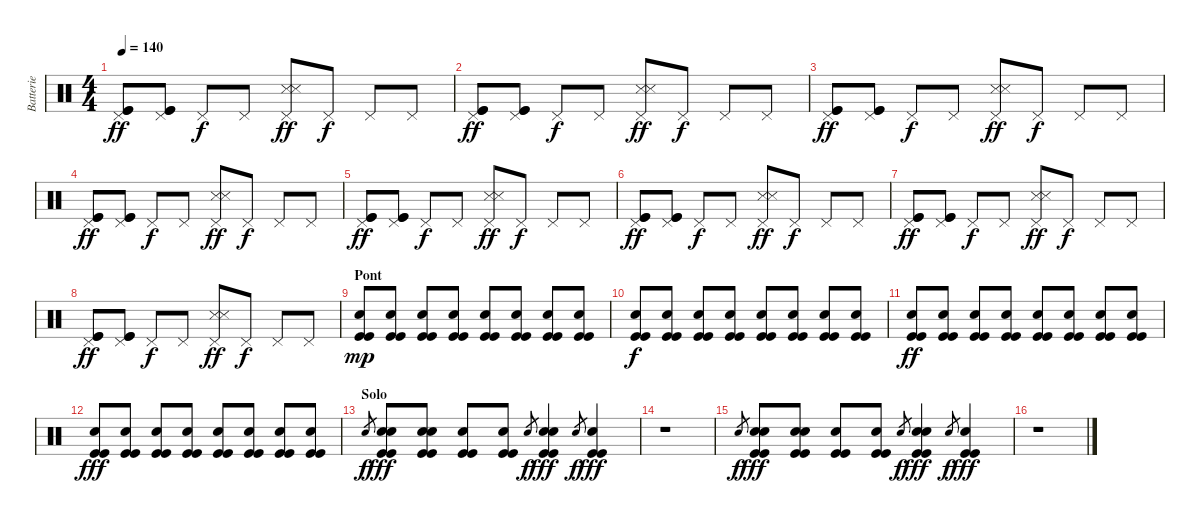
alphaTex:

\track ("Batterie " "Batterie ") {instrument percussion}
\staff {score}
\articulation defaults
\ts (4 4)
\tempo 140
\clef neutral
\ks c
("Kick (hit)" "Kick (hit)" "Pedal Hi-Hat (hit)").8{dy ff} ("Kick (hit)" "Kick (hit)" "Pedal Hi-Hat (hit)").8 "Pedal Hi-Hat (hit)".8{dy f} "Pedal Hi-Hat (hit)".8 ("Snare (side stick) 3" "Snare (side stick) 3" "Pedal Hi-Hat (hit)").8{dy ff} "Pedal Hi-Hat (hit)".8{dy f} "Pedal Hi-Hat (hit)".8 "Pedal Hi-Hat (hit)".8 |
("Kick (hit)" "Kick (hit)" "Pedal Hi-Hat (hit)").8{dy ff} ("Kick (hit)" "Kick (hit)" "Pedal Hi-Hat (hit)").8 "Pedal Hi-Hat (hit)".8{dy f} "Pedal Hi-Hat (hit)".8 ("Snare (side stick) 3" "Snare (side stick) 3" "Pedal Hi-Hat (hit)").8{dy ff} "Pedal Hi-Hat (hit)".8{dy f} "Pedal Hi-Hat (hit)".8 "Pedal Hi-Hat (hit)".8 |
("Kick (hit)" "Kick (hit)" "Pedal Hi-Hat (hit)").8{dy ff} ("Kick (hit)" "Kick (hit)" "Pedal Hi-Hat (hit)").8 "Pedal Hi-Hat (hit)".8{dy f} "Pedal Hi-Hat (hit)".8 ("Snare (side stick) 3" "Snare (side stick) 3" "Pedal Hi-Hat (hit)").8{dy ff} "Pedal Hi-Hat (hit)".8{dy f} "Pedal Hi-Hat (hit)".8 "Pedal Hi-Hat (hit)".8 |
("Kick (hit)" "Kick (hit)" "Pedal Hi-Hat (hit)").8{dy ff} ("Kick (hit)" "Kick (hit)" "Pedal Hi-Hat (hit)").8 "Pedal Hi-Hat (hit)".8{dy f} "Pedal Hi-Hat (hit)".8 ("Snare (side stick) 3" "Snare (side stick) 3" "Pedal Hi-Hat (hit)").8{dy ff} "Pedal Hi-Hat (hit)".8{dy f} "Pedal Hi-Hat (hit)".8 "Pedal Hi-Hat (hit)".8 |
("Kick (hit)" "Kick (hit)" "Pedal Hi-Hat (hit)").8{dy ff} ("Kick (hit)" "Kick (hit)" "Pedal Hi-Hat (hit)").8 "Pedal Hi-Hat (hit)".8{dy f} "Pedal Hi-Hat (hit)".8 ("Snare (side stick) 3" "Snare (side stick) 3" "Pedal Hi-Hat (hit)").8{dy ff} "Pedal Hi-Hat (hit)".8{dy f} "Pedal Hi-Hat (hit)".8 "Pedal Hi-Hat (hit)".8 |
("Kick (hit)" "Kick (hit)" "Pedal Hi-Hat (hit)").8{dy ff} ("Kick (hit)" "Kick (hit)" "Pedal Hi-Hat (hit)").8 "Pedal Hi-Hat (hit)".8{dy f} "Pedal Hi-Hat (hit)".8 ("Snare (side stick) 3" "Snare (side stick) 3" "Pedal Hi-Hat (hit)").8{dy ff} "Pedal Hi-Hat (hit)".8{dy f} "Pedal Hi-Hat (hit)".8 "Pedal Hi-Hat (hit)".8 |
("Kick (hit)" "Kick (hit)" "Pedal Hi-Hat (hit)").8{dy ff} ("Kick (hit)" "Kick (hit)" "Pedal Hi-Hat (hit)").8 "Pedal Hi-Hat (hit)".8{dy f} "Pedal Hi-Hat (hit)".8 ("Snare (side stick) 3" "Snare (side stick) 3" "Pedal Hi-Hat (hit)").8{dy ff} "Pedal Hi-Hat (hit)".8{dy f} "Pedal Hi-Hat (hit)".8 "Pedal Hi-Hat (hit)".8 |
("Kick (hit)" "Kick (hit)" "Pedal Hi-Hat (hit)").8{dy ff} ("Kick (hit)" "Kick (hit)" "Pedal Hi-Hat (hit)").8 "Pedal Hi-Hat (hit)".8{dy f} "Pedal Hi-Hat (hit)".8 ("Snare (side stick) 3" "Snare (side stick) 3" "Pedal Hi-Hat (hit)").8{dy ff} "Pedal Hi-Hat (hit)".8{dy f} "Pedal Hi-Hat (hit)".8 "Pedal Hi-Hat (hit)".8 |
\section ("" "Pont")
("Kick (hit)" "Kick (hit)" "Electric Snare (hit)").8{dy mp} ("Kick (hit)" "Kick (hit)" "Electric Snare (hit)").8 ("Kick (hit)" "Kick (hit)" "Electric Snare (hit)").8 ("Kick (hit)" "Kick (hit)" "Electric Snare (hit)").8 ("Kick (hit)" "Kick (hit)" "Electric Snare (hit)").8 ("Kick (hit)" "Kick (hit)" "Electric Snare (hit)").8 ("Kick (hit)" "Kick (hit)" "Electric Snare (hit)").8 ("Kick (hit)" "Kick (hit)" "Electric Snare (hit)").8 |
("Kick (hit)" "Kick (hit)" "Electric Snare (hit)").8{dy f} ("Kick (hit)" "Kick (hit)" "Electric Snare (hit)").8 ("Kick (hit)" "Kick (hit)" "Electric Snare (hit)").8 ("Kick (hit)" "Kick (hit)" "Electric Snare (hit)").8 ("Kick (hit)" "Kick (hit)" "Electric Snare (hit)").8 ("Kick (hit)" "Kick (hit)" "Electric Snare (hit)").8 ("Kick (hit)" "Kick (hit)" "Electric Snare (hit)").8 ("Kick (hit)" "Kick (hit)" "Electric Snare (hit)").8 |
("Kick (hit)" "Kick (hit)" "Electric Snare (hit)").8{dy ff} ("Kick (hit)" "Kick (hit)" "Electric Snare (hit)").8 ("Kick (hit)" "Kick (hit)" "Electric Snare (hit)").8 ("Kick (hit)" "Kick (hit)" "Electric Snare (hit)").8 ("Kick (hit)" "Kick (hit)" "Electric Snare (hit)").8 ("Kick (hit)" "Kick (hit)" "Electric Snare (hit)").8 ("Kick (hit)" "Kick (hit)" "Electric Snare (hit)").8 ("Kick (hit)" "Kick (hit)" "Electric Snare (hit)").8 |
("Kick (hit)" "Kick (hit)" "Electric Snare (hit)").8{dy fff} ("Kick (hit)" "Kick (hit)" "Electric Snare (hit)").8 ("Kick (hit)" "Kick (hit)" "Electric Snare (hit)").8 ("Kick (hit)" "Kick (hit)" "Electric Snare (hit)").8 ("Kick (hit)" "Kick (hit)" "Electric Snare (hit)").8 ("Kick (hit)" "Kick (hit)" "Electric Snare (hit)").8 ("Kick (hit)" "Kick (hit)" "Electric Snare (hit)").8 ("Kick (hit)" "Kick (hit)" "Electric Snare (hit)").8 |
\section ("" "Solo")
"Electric Snare (hit)".8{gr dy f} ("Kick (hit)" "Kick (hit)" "Snare (hit) 2" "Electric Snare (hit)").8{dy fff} ("Kick (hit)" "Kick (hit)" "Snare (hit) 2" "Electric Snare (hit)").8 ("Kick (hit)" "Kick (hit)" "Snare (hit) 2").8 ("Kick (hit)" "Kick (hit)" "Snare (hit) 2").8 "Electric Snare (hit)".8{gr dy f} ("Kick (hit)" "Kick (hit)" "Snare (hit) 2" "Electric Snare (hit)").4{dy fff} "Snare (hit) 2".8{gr dy f} ("Kick (hit)" "Kick (hit)" "Snare (hit) 2").4{dy fff} |
r.1 |
"Electric Snare (hit)".8{gr dy f} ("Kick (hit)" "Kick (hit)" "Snare (hit) 2" "Electric Snare (hit)").8{dy fff} ("Kick (hit)" "Kick (hit)" "Snare (hit) 2" "Electric Snare (hit)").8 ("Kick (hit)" "Kick (hit)" "Snare (hit) 2").8 ("Kick (hit)" "Kick (hit)" "Snare (hit) 2").8 "Electric Snare (hit)".8{gr dy f} ("Kick (hit)" "Kick (hit)" "Snare (hit) 2" "Electric Snare (hit)").4{dy fff} "Snare (hit) 2".8{gr dy f} ("Kick (hit)" "Kick (hit)" "Snare (hit) 2").4{dy fff} |
r.1
